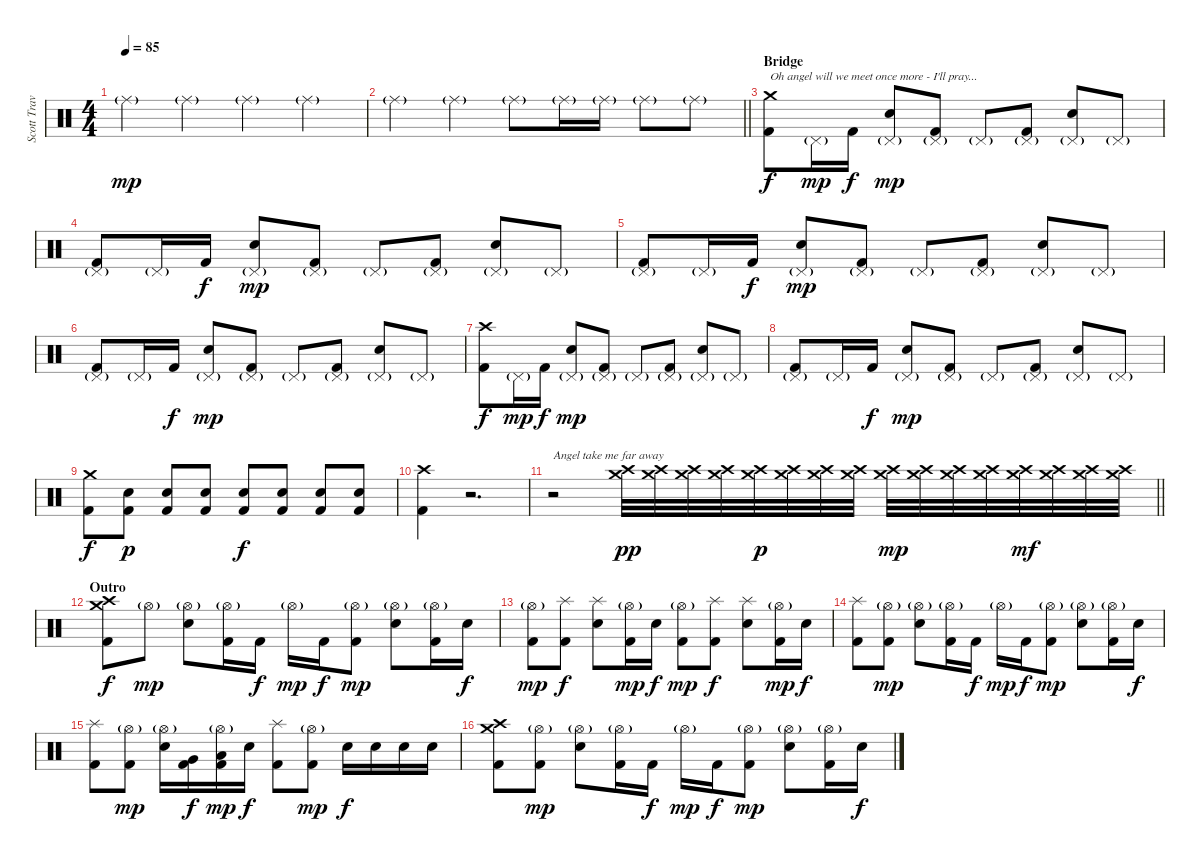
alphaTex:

\track ("Scott Travis" "Scott Trav") {instrument percussion}
\staff {score}
\articulation defaults
\ts (4 4)
\tempo 85
\clef neutral
\ks c "Ride (middle)"{g}.4{dy mp} "Ride (middle)"{g}.4 "Ride (middle)"{g}.4 "Ride (middle)"{g}.4
|
\barLineRight lightlight "Ride (middle)"{g}.4 "Ride (middle)"{g}.4 "Ride (middle)"{g}.8 "Ride (middle)"{g}.16 "Ride (middle)"{g}.16 "Ride (middle)"{g}.8 "Ride (middle)"{g}.8
|
\section ("" "Bridge")
("Crash medium (hit)" "Kick (hit) 2").8{txt "Oh angel will we meet once more - I'll pray..." dy f} "Pedal Hi-Hat (hit)"{g}.16{dy mp} "Kick (hit) 2".16{dy f} ("Pedal Hi-Hat (hit)"{g} "Electric Snare (hit)").8{dy mp} ("Pedal Hi-Hat (hit)"{g} "Kick (hit) 2").8 "Pedal Hi-Hat (hit)"{g}.8 ("Pedal Hi-Hat (hit)"{g} "Kick (hit) 2").8 ("Pedal Hi-Hat (hit)"{g} "Electric Snare (hit)").8 "Pedal Hi-Hat (hit)"{g}.8 |
("Pedal Hi-Hat (hit)"{g} "Kick (hit) 2").8 "Pedal Hi-Hat (hit)"{g}.16 "Kick (hit) 2".16{dy f} ("Pedal Hi-Hat (hit)"{g} "Electric Snare (hit)").8{dy mp} ("Pedal Hi-Hat (hit)"{g} "Kick (hit) 2").8 "Pedal Hi-Hat (hit)"{g}.8 ("Pedal Hi-Hat (hit)"{g} "Kick (hit) 2").8 ("Pedal Hi-Hat (hit)"{g} "Electric Snare (hit)").8 "Pedal Hi-Hat (hit)"{g}.8 |
("Pedal Hi-Hat (hit)"{g} "Kick (hit) 2").8 "Pedal Hi-Hat (hit)"{g}.16 "Kick (hit) 2".16{dy f} ("Pedal Hi-Hat (hit)"{g} "Electric Snare (hit)").8{dy mp} ("Pedal Hi-Hat (hit)"{g} "Kick (hit) 2").8 "Pedal Hi-Hat (hit)"{g}.8 ("Pedal Hi-Hat (hit)"{g} "Kick (hit) 2").8 ("Pedal Hi-Hat (hit)"{g} "Electric Snare (hit)").8 "Pedal Hi-Hat (hit)"{g}.8 |
("Pedal Hi-Hat (hit)"{g} "Kick (hit) 2").8 "Pedal Hi-Hat (hit)"{g}.16 "Kick (hit) 2".16{dy f} ("Pedal Hi-Hat (hit)"{g} "Electric Snare (hit)").8{dy mp} ("Pedal Hi-Hat (hit)"{g} "Kick (hit) 2").8 "Pedal Hi-Hat (hit)"{g}.8 ("Pedal Hi-Hat (hit)"{g} "Kick (hit) 2").8 ("Pedal Hi-Hat (hit)"{g} "Electric Snare (hit)").8 "Pedal Hi-Hat (hit)"{g}.8 |
("Crash high (hit)" "Kick (hit) 2").8{dy f} "Pedal Hi-Hat (hit)"{g}.16{dy mp} "Kick (hit) 2".16{dy f} ("Pedal Hi-Hat (hit)"{g} "Electric Snare (hit)").8{dy mp} ("Pedal Hi-Hat (hit)"{g} "Kick (hit) 2").8 "Pedal Hi-Hat (hit)"{g}.8 ("Pedal Hi-Hat (hit)"{g} "Kick (hit) 2").8 ("Pedal Hi-Hat (hit)"{g} "Electric Snare (hit)").8 "Pedal Hi-Hat (hit)"{g}.8 |
("Pedal Hi-Hat (hit)"{g} "Kick (hit) 2").8 "Pedal Hi-Hat (hit)"{g}.16 "Kick (hit) 2".16{dy f} ("Pedal Hi-Hat (hit)"{g} "Electric Snare (hit)").8{dy mp} ("Pedal Hi-Hat (hit)"{g} "Kick (hit) 2").8 "Pedal Hi-Hat (hit)"{g}.8 ("Pedal Hi-Hat (hit)"{g} "Kick (hit) 2").8 ("Pedal Hi-Hat (hit)"{g} "Electric Snare (hit)").8 "Pedal Hi-Hat (hit)"{g}.8 |
("Crash medium (hit)" "Kick (hit) 2").8{dy f} ("Electric Snare (hit)" "Kick (hit) 2").8{dy p} ("Electric Snare (hit)" "Kick (hit) 2").8 ("Electric Snare (hit)" "Kick (hit) 2").8 ("Electric Snare (hit)" "Kick (hit) 2").8{dy f} ("Electric Snare (hit)" "Kick (hit) 2").8 ("Electric Snare (hit)" "Kick (hit) 2").8 ("Electric Snare (hit)" "Kick (hit) 2").8 |
("Crash high (hit)" "Kick (hit) 2").4 r.2{d} |
\barLineRight lightlight
r.2{txt "Angel take me far away"} ("Crash high (hit)" "Crash medium (hit)").32{dy pp} ("Crash high (hit)" "Crash medium (hit)").32 ("Crash high (hit)" "Crash medium (hit)").32 ("Crash high (hit)" "Crash medium (hit)").32 ("Crash high (hit)" "Crash medium (hit)").32{dy p} ("Crash high (hit)" "Crash medium (hit)").32 ("Crash high (hit)" "Crash medium (hit)").32 ("Crash high (hit)" "Crash medium (hit)").32 ("Crash high (hit)" "Crash medium (hit)").32{dy mp} ("Crash high (hit)" "Crash medium (hit)").32 ("Crash high (hit)" "Crash medium (hit)").32 ("Crash high (hit)" "Crash medium (hit)").32 ("Crash high (hit)" "Crash medium (hit)").32{dy mf} ("Crash high (hit)" "Crash medium (hit)").32 ("Crash high (hit)" "Crash medium (hit)").32 ("Crash high (hit)" "Crash medium (hit)").32 |
\section ("" "Outro")
("Crash high (hit)" "Crash medium (hit)" "Kick (hit) 2").8{dy f} "Hi-Hat (open)"{g}.8{dy mp} ("Hi-Hat (open)"{g} "Electric Snare (hit)").8 ("Hi-Hat (open)"{g} "Kick (hit) 2").16 "Kick (hit) 2".16{dy f} "Hi-Hat (open)"{g}.16{dy mp} "Kick (hit) 2".16{dy f} ("Hi-Hat (open)"{g} "Kick (hit) 2").8{dy mp} ("Hi-Hat (open)"{g} "Electric Snare (hit)").8 ("Hi-Hat (open)"{g} "Kick (hit) 2").16 "Electric Snare (hit)".16{dy f} |
("Hi-Hat (open)"{g} "Kick (hit) 2").8{dy mp} ("Splash (hit)" "Kick (hit) 2").8{dy f} ("Splash (hit)" "Electric Snare (hit)").8 ("Hi-Hat (open)"{g} "Kick (hit) 2").16{dy mp} "Electric Snare (hit)".16{dy f} ("Hi-Hat (open)"{g} "Kick (hit) 2").8{dy mp} ("Splash (hit)" "Kick (hit) 2").8{dy f} ("Splash (hit)" "Electric Snare (hit)").8 ("Hi-Hat (open)"{g} "Kick (hit) 2").16{dy mp} "Electric Snare (hit)".16{dy f} |
("Splash (hit)" "Kick (hit) 2").8 ("Hi-Hat (open)"{g} "Kick (hit) 2").8{dy mp} ("Hi-Hat (open)"{g} "Electric Snare (hit)").8 ("Hi-Hat (open)"{g} "Kick (hit) 2").16 "Kick (hit) 2".16{dy f} "Hi-Hat (open)"{g}.16{dy mp} "Kick (hit) 2".16{dy f} ("Hi-Hat (open)"{g} "Kick (hit) 2").8{dy mp} ("Hi-Hat (open)"{g} "Electric Snare (hit)").8 ("Hi-Hat (open)"{g} "Kick (hit) 2").16 "Electric Snare (hit)".16{dy f} |
("Splash (hit)" "Kick (hit) 2").8 ("Hi-Hat (open)"{g} "Kick (hit) 2").8{dy mp} ("Hi-Hat (open)"{g} "Electric Snare (hit)").16 ("Very Low Tom (hit)" "Kick (hit) 2").16{dy f} ("Hi-Hat (open)"{g} "Low Floor Tom (hit)" "Kick (hit) 2").16{dy mp} "Electric Snare (hit)".16{dy f} ("Splash (hit)" "Kick (hit) 2").8 ("Hi-Hat (open)"{g} "Kick (hit) 2").8{dy mp} "Electric Snare (hit)".16{dy f} "Electric Snare (hit)".16 "Electric Snare (hit)".16 "Electric Snare (hit)".16 |
("Crash high (hit)" "Crash medium (hit)" "Kick (hit) 2").8 ("Hi-Hat (open)"{g} "Kick (hit) 2").8{dy mp} ("Hi-Hat (open)"{g} "Electric Snare (hit)").8 ("Hi-Hat (open)"{g} "Kick (hit) 2").16 "Kick (hit) 2".16{dy f} "Hi-Hat (open)"{g}.16{dy mp} "Kick (hit) 2".16{dy f} ("Hi-Hat (open)"{g} "Kick (hit) 2").8{dy mp} ("Hi-Hat (open)"{g} "Electric Snare (hit)").8 ("Hi-Hat (open)"{g} "Kick (hit) 2").16 "Electric Snare (hit)".16{dy f}
